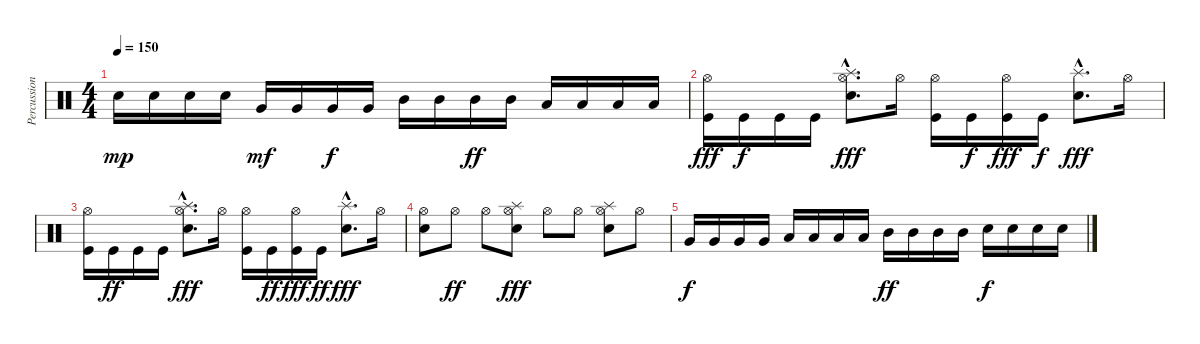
\track ("Percussion" "Percussion") {instrument percussion}
\staff {score}
\articulation defaults
\ts (4 4)
\tempo 150
\clef neutral
\ks c "Snare (hit) 2".16{dy mp} "Snare (hit) 2".16 "Snare (hit) 2".16 "Snare (hit) 2".16 "Very Low Tom (hit)".16{dy mf} "Very Low Tom (hit)".16 "Very Low Tom (hit)".16{dy f} "Very Low Tom (hit)".16 "Mid Tom (hit)".16 "Mid Tom (hit)".16 "Mid Tom (hit)".16{dy ff} "Mid Tom (hit)".16 "Low Tom (hit)".16 "Low Tom (hit)".16 "Low Tom (hit)".16 "Low Tom (hit)".16
|
("Kick (hit)" "Hi-Hat (open)").16{dy fff} "Kick (hit)".16{dy f} "Kick (hit)".16 "Kick (hit)".16 ("Snare (hit) 2"{hac} "Splash (hit)"{hac} "Hi-Hat (open)"{hac}).8{d dy fff} "Hi-Hat (open)".16 ("Kick (hit)" "Hi-Hat (open)").16 "Kick (hit)".16{dy f} ("Kick (hit)" "Hi-Hat (open)").16{dy fff} "Kick (hit)".16{dy f} ("Snare (hit) 2"{hac} "Splash (hit)"{hac}).8{d dy fff} "Hi-Hat (open)".16 |
("Kick (hit)" "Hi-Hat (open)").16 "Kick (hit)".16{dy ff} "Kick (hit)".16 "Kick (hit)".16 ("Snare (hit) 2"{hac} "Splash (hit)"{hac} "Hi-Hat (open)"{hac}).8{d dy fff} "Hi-Hat (open)".16 ("Kick (hit)" "Hi-Hat (open)").16 "Kick (hit)".16{dy ff} ("Kick (hit)" "Hi-Hat (open)").16{dy fff} "Kick (hit)".16{dy ff} ("Snare (hit) 2"{hac} "Splash (hit)"{hac}).8{d dy fff} "Hi-Hat (open)".16 |
("Snare (hit) 2" "Hi-Hat (open)").8 "Hi-Hat (open)".8{dy ff} "Hi-Hat (open)".8 ("Snare (hit) 2" "Splash (hit)" "Hi-Hat (open)").8{dy fff} "Hi-Hat (open)".8 "Hi-Hat (open)".8 ("Snare (hit) 2" "Splash (hit)" "Hi-Hat (open)").8 "Hi-Hat (open)".8 |
"Very Low Tom (hit)".16{dy f} "Very Low Tom (hit)".16 "Very Low Tom (hit)".16 "Very Low Tom (hit)".16 "Low Tom (hit)".16 "Low Tom (hit)".16 "Low Tom (hit)".16 "Low Tom (hit)".16 "Mid Tom (hit)".16{dy ff} "Mid Tom (hit)".16 "Mid Tom (hit)".16 "Mid Tom (hit)".16 "Snare (hit) 2".16{dy f} "Snare (hit) 2".16 "Snare (hit) 2".16 "Snare (hit) 2".16
